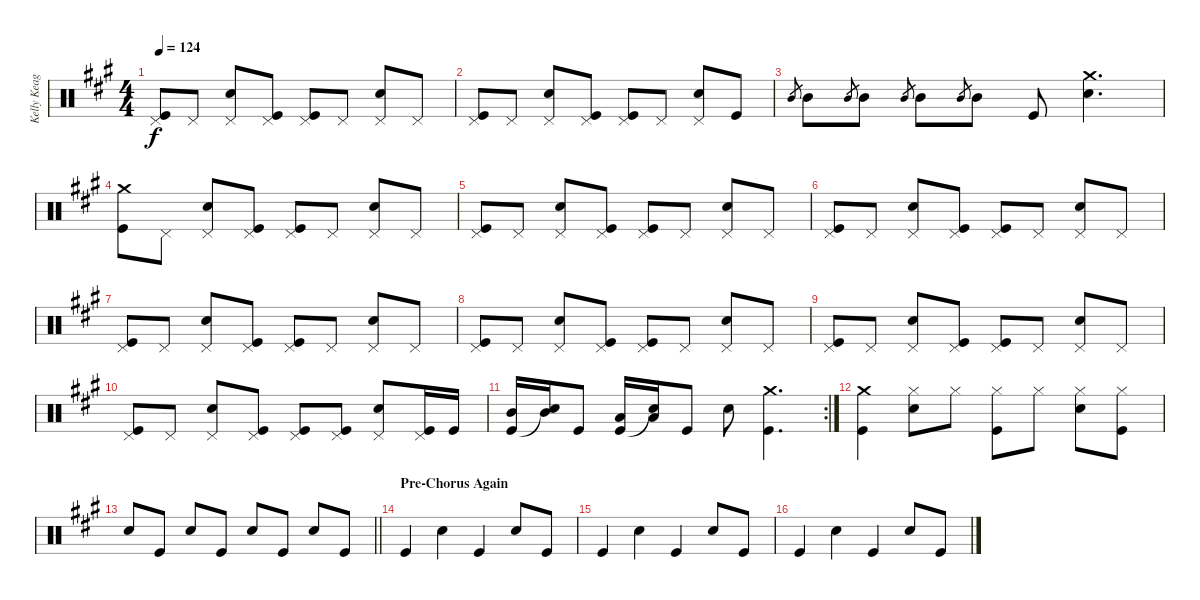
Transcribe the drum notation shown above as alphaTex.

\track ("Kelly Keagy" "Kelly Keag") {instrument percussion}
\staff {score}
\articulation defaults
\ts (4 4)
\tempo 124
\clef neutral
\ks a
("Pedal Hi-Hat (hit)" "Kick (hit)").8{dy f} "Pedal Hi-Hat (hit)".8 ("Pedal Hi-Hat (hit)" "Snare (hit) 2").8 ("Pedal Hi-Hat (hit)" "Kick (hit)").8 ("Pedal Hi-Hat (hit)" "Kick (hit)").8 "Pedal Hi-Hat (hit)".8 ("Pedal Hi-Hat (hit)" "Snare (hit) 2").8 "Pedal Hi-Hat (hit)".8 |
("Pedal Hi-Hat (hit)" "Kick (hit)").8 "Pedal Hi-Hat (hit)".8 ("Pedal Hi-Hat (hit)" "Snare (hit) 2").8 ("Pedal Hi-Hat (hit)" "Kick (hit)").8 ("Pedal Hi-Hat (hit)" "Kick (hit)").8 "Pedal Hi-Hat (hit)".8 ("Pedal Hi-Hat (hit)" "Snare (hit) 2").8 "Kick (hit)".8 |
"Mid Tom (hit)".8{gr} "Mid Tom (hit)".8 "Mid Tom (hit)".8{gr} "Mid Tom (hit)".8 "Mid Tom (hit)".8{gr} "Mid Tom (hit)".8 "Mid Tom (hit)".8{gr} "Mid Tom (hit)".8 "Kick (hit)".8 ("Crash medium (hit)" "Snare (hit) 2").4{d} |
("Crash medium (hit)" "Kick (hit)").8 "Pedal Hi-Hat (hit)".8 ("Pedal Hi-Hat (hit)" "Snare (hit) 2").8 ("Pedal Hi-Hat (hit)" "Kick (hit)").8 ("Pedal Hi-Hat (hit)" "Kick (hit)").8 "Pedal Hi-Hat (hit)".8 ("Pedal Hi-Hat (hit)" "Snare (hit) 2").8 "Pedal Hi-Hat (hit)".8 |
("Pedal Hi-Hat (hit)" "Kick (hit)").8 "Pedal Hi-Hat (hit)".8 ("Pedal Hi-Hat (hit)" "Snare (hit) 2").8 ("Pedal Hi-Hat (hit)" "Kick (hit)").8 ("Pedal Hi-Hat (hit)" "Kick (hit)").8 "Pedal Hi-Hat (hit)".8 ("Pedal Hi-Hat (hit)" "Snare (hit) 2").8 "Pedal Hi-Hat (hit)".8 |
("Pedal Hi-Hat (hit)" "Kick (hit)").8 "Pedal Hi-Hat (hit)".8 ("Pedal Hi-Hat (hit)" "Snare (hit) 2").8 ("Pedal Hi-Hat (hit)" "Kick (hit)").8 ("Pedal Hi-Hat (hit)" "Kick (hit)").8 "Pedal Hi-Hat (hit)".8 ("Pedal Hi-Hat (hit)" "Snare (hit) 2").8 "Pedal Hi-Hat (hit)".8 |
("Pedal Hi-Hat (hit)" "Kick (hit)").8 "Pedal Hi-Hat (hit)".8 ("Pedal Hi-Hat (hit)" "Snare (hit) 2").8 ("Pedal Hi-Hat (hit)" "Kick (hit)").8 ("Pedal Hi-Hat (hit)" "Kick (hit)").8 "Pedal Hi-Hat (hit)".8 ("Pedal Hi-Hat (hit)" "Snare (hit) 2").8 "Pedal Hi-Hat (hit)".8 |
("Pedal Hi-Hat (hit)" "Kick (hit)").8 "Pedal Hi-Hat (hit)".8 ("Pedal Hi-Hat (hit)" "Snare (hit) 2").8 ("Pedal Hi-Hat (hit)" "Kick (hit)").8 ("Pedal Hi-Hat (hit)" "Kick (hit)").8 "Pedal Hi-Hat (hit)".8 ("Pedal Hi-Hat (hit)" "Snare (hit) 2").8 "Pedal Hi-Hat (hit)".8 |
("Pedal Hi-Hat (hit)" "Kick (hit)").8 "Pedal Hi-Hat (hit)".8 ("Pedal Hi-Hat (hit)" "Snare (hit) 2").8 ("Pedal Hi-Hat (hit)" "Kick (hit)").8 ("Pedal Hi-Hat (hit)" "Kick (hit)").8 "Pedal Hi-Hat (hit)".8 ("Pedal Hi-Hat (hit)" "Snare (hit) 2").8 "Pedal Hi-Hat (hit)".8 |
("Pedal Hi-Hat (hit)" "Kick (hit)").8 "Pedal Hi-Hat (hit)".8 ("Pedal Hi-Hat (hit)" "Snare (hit) 2").8 ("Pedal Hi-Hat (hit)" "Kick (hit)").8 ("Pedal Hi-Hat (hit)" "Kick (hit)").8 ("Pedal Hi-Hat (hit)" "Kick (hit)").8 ("Pedal Hi-Hat (hit)" "Snare (hit) 2").8 ("Pedal Hi-Hat (hit)" "Kick (hit)").16 "Kick (hit)".16 |
\rc 2
("Mid Tom (hit)" "Kick (hit)").16 ("Mid Tom (hit)" "Snare (hit)"{t}).16 "Kick (hit)".8 ("Low Tom (hit)" "Kick (hit)").16 ("Low Tom (hit)" "Snare (hit)"{t}).16 "Kick (hit)".8 "Snare (hit) 2".8 ("Crash medium (hit)" "Kick (hit)").4{d} |
("Crash medium (hit)" "Kick (hit)").4 ("Hi-Hat (closed)" "Snare (hit) 2").8 "Hi-Hat (closed)".8 ("Hi-Hat (closed)" "Kick (hit)").8 "Hi-Hat (closed)".8 ("Hi-Hat (closed)" "Snare (hit) 2").8 ("Hi-Hat (closed)" "Kick (hit)").8 |
\barLineRight lightlight "Snare (hit) 2".8 "Kick (hit)".8 "Snare (hit) 2".8 "Kick (hit)".8 "Snare (hit) 2".8 "Kick (hit)".8 "Snare (hit) 2".8 "Kick (hit)".8
|
\section ("" "Pre-Chorus Again")
"Kick (hit)".4 "Snare (hit) 2".4 "Kick (hit)".4 "Snare (hit) 2".8 "Kick (hit)".8 |
"Kick (hit)".4 "Snare (hit) 2".4 "Kick (hit)".4 "Snare (hit) 2".8 "Kick (hit)".8 |
"Kick (hit)".4 "Snare (hit) 2".4 "Kick (hit)".4 "Snare (hit) 2".8 "Kick (hit)".8
